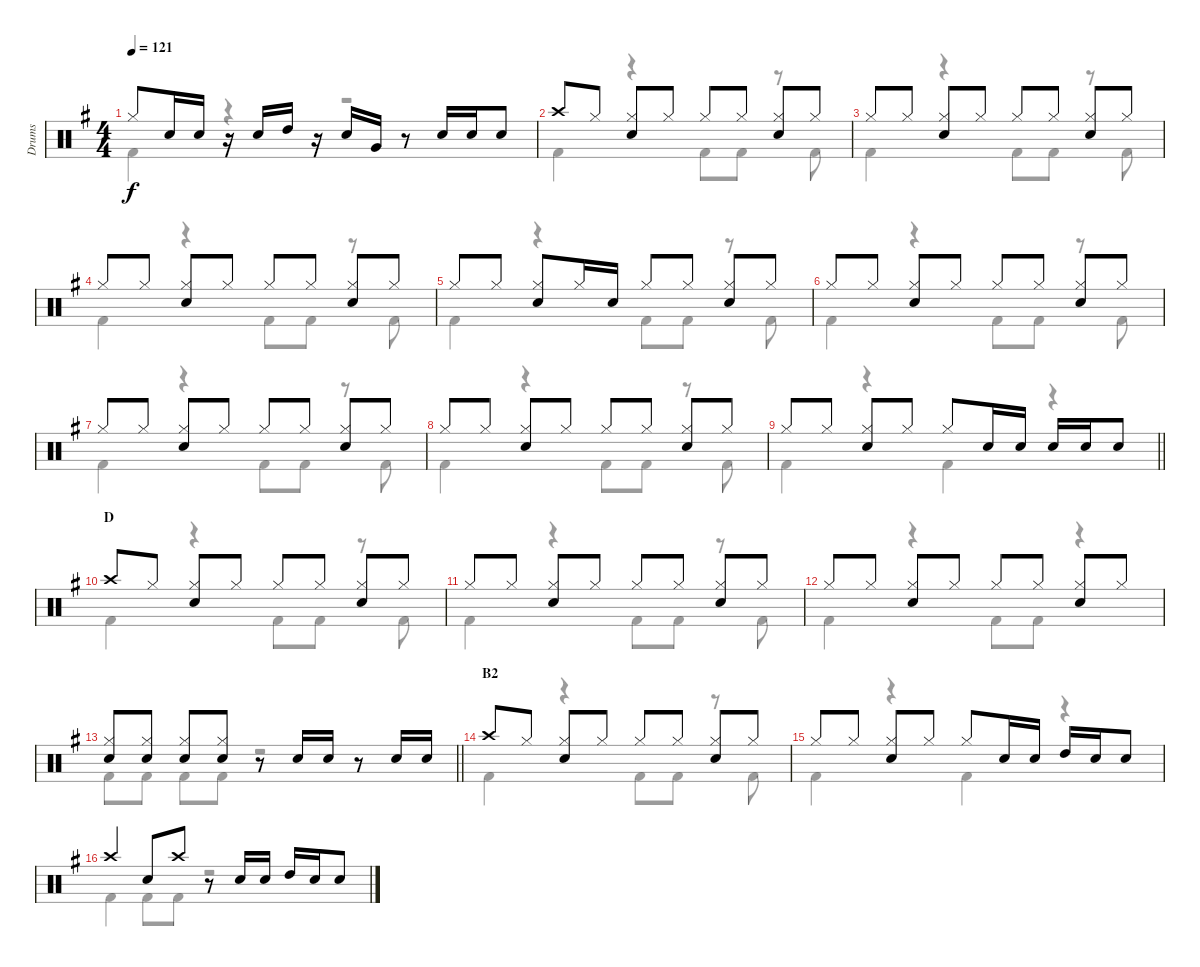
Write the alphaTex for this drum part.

\track ("Drums" "Drums") {instrument percussion}
\staff {score}
\articulation defaults
\voice
\ts (4 4)
\tempo 121
\clef neutral
\ks g "Hi-Hat (closed)".8{dy f} "Snare (hit) 2".16 "Snare (hit) 2".16
r.16 "Snare (hit) 2".16 "High Tom (hit)".16 r.16 "Snare (hit) 2".16 "Very Low Tom (hit)".16 r.8 "Snare (hit) 2".16 "Snare (hit) 2".16 "Snare (hit) 2".8 |
"Crash high (hit)".8 "Hi-Hat (closed)".8 ("Hi-Hat (closed)" "Snare (hit) 2").8 "Hi-Hat (closed)".8 "Hi-Hat (closed)".8 "Hi-Hat (closed)".8 ("Hi-Hat (closed)" "Snare (hit) 2").8 "Hi-Hat (closed)".8 |
"Hi-Hat (closed)".8 "Hi-Hat (closed)".8 ("Hi-Hat (closed)" "Snare (hit) 2").8 "Hi-Hat (closed)".8 "Hi-Hat (closed)".8 "Hi-Hat (closed)".8 ("Hi-Hat (closed)" "Snare (hit) 2").8 "Hi-Hat (closed)".8 |
"Hi-Hat (closed)".8 "Hi-Hat (closed)".8 ("Hi-Hat (closed)" "Snare (hit) 2").8 "Hi-Hat (closed)".8 "Hi-Hat (closed)".8 "Hi-Hat (closed)".8 ("Hi-Hat (closed)" "Snare (hit) 2").8 "Hi-Hat (closed)".8 |
"Hi-Hat (closed)".8 "Hi-Hat (closed)".8 ("Hi-Hat (closed)" "Snare (hit) 2").8 "Hi-Hat (closed)".16 "Snare (hit) 2".16 "Hi-Hat (closed)".8 "Hi-Hat (closed)".8 ("Hi-Hat (closed)" "Snare (hit) 2").8 "Hi-Hat (closed)".8 |
"Hi-Hat (closed)".8 "Hi-Hat (closed)".8 ("Hi-Hat (closed)" "Snare (hit) 2").8 "Hi-Hat (closed)".8 "Hi-Hat (closed)".8 "Hi-Hat (closed)".8 ("Hi-Hat (closed)" "Snare (hit) 2").8 "Hi-Hat (closed)".8 |
"Hi-Hat (closed)".8 "Hi-Hat (closed)".8 ("Hi-Hat (closed)" "Snare (hit) 2").8 "Hi-Hat (closed)".8 "Hi-Hat (closed)".8 "Hi-Hat (closed)".8 ("Hi-Hat (closed)" "Snare (hit) 2").8 "Hi-Hat (closed)".8 |
"Hi-Hat (closed)".8 "Hi-Hat (closed)".8 ("Hi-Hat (closed)" "Snare (hit) 2").8 "Hi-Hat (closed)".8 "Hi-Hat (closed)".8 "Hi-Hat (closed)".8 ("Hi-Hat (closed)" "Snare (hit) 2").8 "Hi-Hat (closed)".8 |
\barLineRight lightlight "Hi-Hat (closed)".8 "Hi-Hat (closed)".8
("Hi-Hat (closed)" "Snare (hit) 2").8 "Hi-Hat (closed)".8 "Hi-Hat (closed)".8 "Snare (hit) 2".16 "Snare (hit) 2".16 "Snare (hit) 2".16 "Snare (hit) 2".16 "Snare (hit) 2".8 |
\section ("" "D")
"Crash high (hit)".8 "Hi-Hat (closed)".8 ("Hi-Hat (closed)" "Snare (hit) 2").8 "Hi-Hat (closed)".8 "Hi-Hat (closed)".8 "Hi-Hat (closed)".8 ("Hi-Hat (closed)" "Snare (hit) 2").8 "Hi-Hat (closed)".8 |
"Hi-Hat (closed)".8 "Hi-Hat (closed)".8 ("Hi-Hat (closed)" "Snare (hit) 2").8 "Hi-Hat (closed)".8 "Hi-Hat (closed)".8 "Hi-Hat (closed)".8 ("Hi-Hat (closed)" "Snare (hit) 2").8 "Hi-Hat (closed)".8 |
"Hi-Hat (closed)".8 "Hi-Hat (closed)".8 ("Hi-Hat (closed)" "Snare (hit) 2").8 "Hi-Hat (closed)".8 "Hi-Hat (closed)".8 "Hi-Hat (closed)".8 ("Hi-Hat (closed)" "Snare (hit) 2").8 "Hi-Hat (closed)".8 |
\barLineRight lightlight
("Hi-Hat (closed)" "Snare (hit) 2").8 ("Hi-Hat (closed)" "Snare (hit) 2").8 ("Hi-Hat (closed)" "Snare (hit) 2").8 ("Hi-Hat (closed)" "Snare (hit) 2").8 r.8 "Snare (hit) 2".16 "Snare (hit) 2".16 r.8 "Snare (hit) 2".16 "Snare (hit) 2".16 |
\section ("" "B2")
"Crash high (hit)".8 "Hi-Hat (closed)".8 ("Hi-Hat (closed)" "Snare (hit) 2").8 "Hi-Hat (closed)".8 "Hi-Hat (closed)".8 "Hi-Hat (closed)".8 ("Hi-Hat (closed)" "Snare (hit) 2").8 "Hi-Hat (closed)".8 |
"Hi-Hat (closed)".8 "Hi-Hat (closed)".8 ("Hi-Hat (closed)" "Snare (hit) 2").8 "Hi-Hat (closed)".8 "Hi-Hat (closed)".8 "Snare (hit) 2".16 "Snare (hit) 2".16 "High Tom (hit)".16 "Snare (hit) 2".16 "Snare (hit) 2".8 |
"Crash high (hit)".4 "Snare (hit) 2".8 "Crash high (hit)".8 r.8 "Snare (hit) 2".16 "Snare (hit) 2".16 "High Tom (hit)".16 "Snare (hit) 2".16 "Snare (hit) 2".8
\voice
\clef neutral
\ottava regular
\simile none
\ks g "Kick (hit) 2".4{dy f}
r.4 r.2 |
"Kick (hit) 2".4 r.4 "Kick (hit) 2".8 "Kick (hit) 2".8 r.8 "Kick (hit) 2".8 |
"Kick (hit) 2".4 r.4 "Kick (hit) 2".8 "Kick (hit) 2".8 r.8 "Kick (hit) 2".8 |
"Kick (hit) 2".4 r.4 "Kick (hit) 2".8 "Kick (hit) 2".8 r.8 "Kick (hit) 2".8 |
"Kick (hit) 2".4 r.4 "Kick (hit) 2".8 "Kick (hit) 2".8 r.8 "Kick (hit) 2".8 |
"Kick (hit) 2".4 r.4 "Kick (hit) 2".8 "Kick (hit) 2".8 r.8 "Kick (hit) 2".8 |
"Kick (hit) 2".4 r.4 "Kick (hit) 2".8 "Kick (hit) 2".8 r.8 "Kick (hit) 2".8 |
"Kick (hit) 2".4 r.4 "Kick (hit) 2".8 "Kick (hit) 2".8 r.8 "Kick (hit) 2".8 |
\barLineRight lightlight "Kick (hit) 2".4
r.4 "Kick (hit) 2".4 r.4 |
"Kick (hit) 2".4 r.4 "Kick (hit) 2".8 "Kick (hit) 2".8 r.8 "Kick (hit) 2".8 |
"Kick (hit) 2".4 r.4 "Kick (hit) 2".8 "Kick (hit) 2".8 r.8 "Kick (hit) 2".8 |
"Kick (hit) 2".4 r.4 "Kick (hit) 2".8 "Kick (hit) 2".8 r.4 |
\barLineRight lightlight "Kick (hit) 2".8 "Kick (hit) 2".8 "Kick (hit) 2".8 "Kick (hit) 2".8
r.2 |
"Kick (hit) 2".4 r.4 "Kick (hit) 2".8 "Kick (hit) 2".8 r.8 "Kick (hit) 2".8 |
"Kick (hit) 2".4 r.4 "Kick (hit) 2".4 r.4 |
"Kick (hit) 2".4 "Kick (hit) 2".8 "Kick (hit) 2".8 r.2
